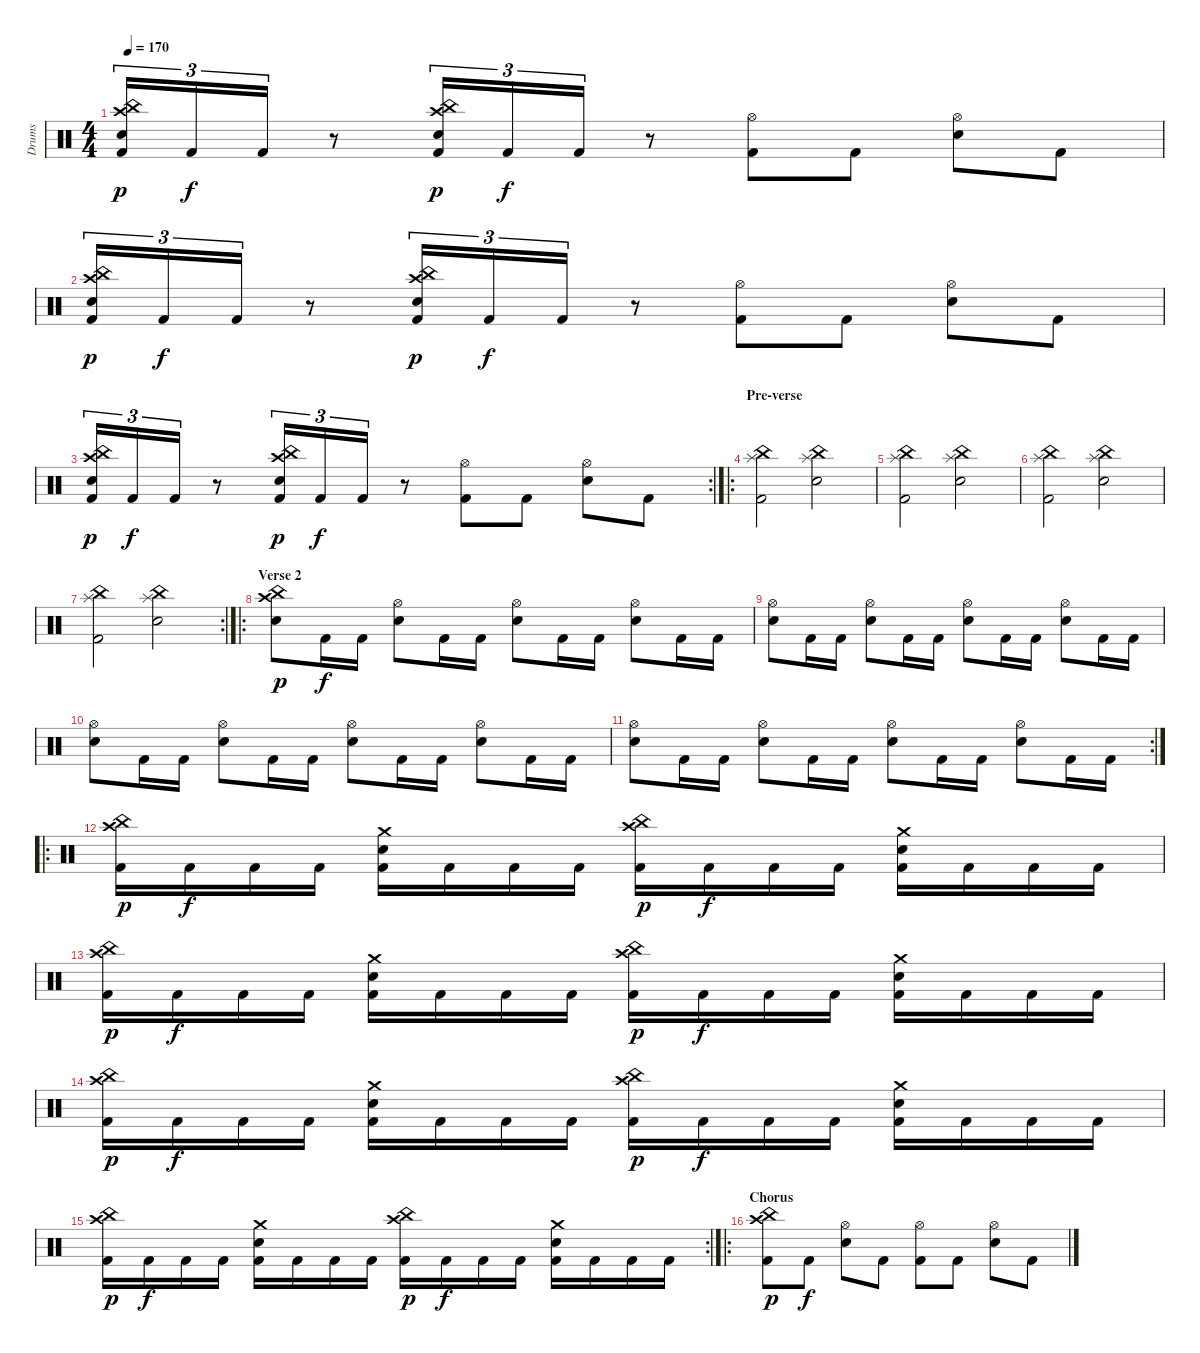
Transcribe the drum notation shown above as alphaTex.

\track ("Drums" "Drums") {instrument percussion}
\staff {score}
\articulation defaults
\ts (4 4)
\tempo 170
\clef neutral
\ks c
("Kick (hit) 2" "China (hit)" "Crash high (hit)" "Electric Snare (hit)").16{tu (3 2) dy p} "Kick (hit) 2".16{tu (3 2) dy f} "Kick (hit) 2".16{tu (3 2)} r.8 ("Kick (hit) 2" "China (hit)" "Crash high (hit)" "Electric Snare (hit)").16{tu (3 2) dy p} "Kick (hit) 2".16{tu (3 2) dy f} "Kick (hit) 2".16{tu (3 2)} r.8 ("Kick (hit) 2" "Hi-Hat (open)").8 "Kick (hit) 2".8 ("Electric Snare (hit)" "Hi-Hat (open)").8 "Kick (hit) 2".8 |
("Kick (hit) 2" "China (hit)" "Crash high (hit)" "Electric Snare (hit)").16{tu (3 2) dy p} "Kick (hit) 2".16{tu (3 2) dy f} "Kick (hit) 2".16{tu (3 2)} r.8 ("Kick (hit) 2" "China (hit)" "Crash high (hit)" "Electric Snare (hit)").16{tu (3 2) dy p} "Kick (hit) 2".16{tu (3 2) dy f} "Kick (hit) 2".16{tu (3 2)} r.8 ("Kick (hit) 2" "Hi-Hat (open)").8 "Kick (hit) 2".8 ("Electric Snare (hit)" "Hi-Hat (open)").8 "Kick (hit) 2".8 |
\rc 2
("Kick (hit) 2" "China (hit)" "Crash high (hit)" "Electric Snare (hit)").16{tu (3 2) dy p} "Kick (hit) 2".16{tu (3 2) dy f} "Kick (hit) 2".16{tu (3 2)} r.8 ("Kick (hit) 2" "China (hit)" "Crash high (hit)" "Electric Snare (hit)").16{tu (3 2) dy p} "Kick (hit) 2".16{tu (3 2) dy f} "Kick (hit) 2".16{tu (3 2)} r.8 ("Kick (hit) 2" "Hi-Hat (open)").8 "Kick (hit) 2".8 ("Electric Snare (hit)" "Hi-Hat (open)").8 "Kick (hit) 2".8 |
\ro
\section ("" "Pre-verse")
("China (hit)" "Splash (hit)" "Kick (hit) 2").2 ("China (hit)" "Splash (hit)" "Electric Snare (hit)").2 |
("China (hit)" "Splash (hit)" "Kick (hit) 2").2 ("China (hit)" "Splash (hit)" "Electric Snare (hit)").2 |
("China (hit)" "Splash (hit)" "Kick (hit) 2").2 ("China (hit)" "Splash (hit)" "Electric Snare (hit)").2 |
\rc 2
("China (hit)" "Splash (hit)" "Kick (hit) 2").2 ("China (hit)" "Splash (hit)" "Electric Snare (hit)").2 |
\ro
\section ("" "Verse 2")
("Electric Snare (hit)" "China (hit)" "Crash high (hit)").8{dy p} "Kick (hit) 2".16{dy f} "Kick (hit) 2".16 ("Electric Snare (hit)" "Hi-Hat (open)").8 "Kick (hit) 2".16 "Kick (hit) 2".16 ("Electric Snare (hit)" "Hi-Hat (open)").8 "Kick (hit) 2".16 "Kick (hit) 2".16 ("Electric Snare (hit)" "Hi-Hat (open)").8 "Kick (hit) 2".16 "Kick (hit) 2".16 |
("Electric Snare (hit)" "Hi-Hat (open)").8 "Kick (hit) 2".16 "Kick (hit) 2".16 ("Electric Snare (hit)" "Hi-Hat (open)").8 "Kick (hit) 2".16 "Kick (hit) 2".16 ("Electric Snare (hit)" "Hi-Hat (open)").8 "Kick (hit) 2".16 "Kick (hit) 2".16 ("Electric Snare (hit)" "Hi-Hat (open)").8 "Kick (hit) 2".16 "Kick (hit) 2".16 |
("Electric Snare (hit)" "Hi-Hat (open)").8 "Kick (hit) 2".16 "Kick (hit) 2".16 ("Electric Snare (hit)" "Hi-Hat (open)").8 "Kick (hit) 2".16 "Kick (hit) 2".16 ("Electric Snare (hit)" "Hi-Hat (open)").8 "Kick (hit) 2".16 "Kick (hit) 2".16 ("Electric Snare (hit)" "Hi-Hat (open)").8 "Kick (hit) 2".16 "Kick (hit) 2".16 |
\rc 2
("Electric Snare (hit)" "Hi-Hat (open)").8 "Kick (hit) 2".16 "Kick (hit) 2".16 ("Electric Snare (hit)" "Hi-Hat (open)").8 "Kick (hit) 2".16 "Kick (hit) 2".16 ("Electric Snare (hit)" "Hi-Hat (open)").8 "Kick (hit) 2".16 "Kick (hit) 2".16 ("Electric Snare (hit)" "Hi-Hat (open)").8 "Kick (hit) 2".16 "Kick (hit) 2".16 |
\ro
("Kick (hit) 2" "China (hit)" "Crash high (hit)").16{dy p} "Kick (hit) 2".16{dy f} "Kick (hit) 2".16 "Kick (hit) 2".16 ("Kick (hit) 2" "Crash medium (hit)" "Electric Snare (hit)").16 "Kick (hit) 2".16 "Kick (hit) 2".16 "Kick (hit) 2".16 ("Kick (hit) 2" "China (hit)" "Crash high (hit)").16{dy p} "Kick (hit) 2".16{dy f} "Kick (hit) 2".16 "Kick (hit) 2".16 ("Kick (hit) 2" "Crash medium (hit)" "Electric Snare (hit)").16 "Kick (hit) 2".16 "Kick (hit) 2".16 "Kick (hit) 2".16 |
("Kick (hit) 2" "China (hit)" "Crash high (hit)").16{dy p} "Kick (hit) 2".16{dy f} "Kick (hit) 2".16 "Kick (hit) 2".16 ("Kick (hit) 2" "Crash medium (hit)" "Electric Snare (hit)").16 "Kick (hit) 2".16 "Kick (hit) 2".16 "Kick (hit) 2".16 ("Kick (hit) 2" "China (hit)" "Crash high (hit)").16{dy p} "Kick (hit) 2".16{dy f} "Kick (hit) 2".16 "Kick (hit) 2".16 ("Kick (hit) 2" "Crash medium (hit)" "Electric Snare (hit)").16 "Kick (hit) 2".16 "Kick (hit) 2".16 "Kick (hit) 2".16 |
("Kick (hit) 2" "China (hit)" "Crash high (hit)").16{dy p} "Kick (hit) 2".16{dy f} "Kick (hit) 2".16 "Kick (hit) 2".16 ("Kick (hit) 2" "Crash medium (hit)" "Electric Snare (hit)").16 "Kick (hit) 2".16 "Kick (hit) 2".16 "Kick (hit) 2".16 ("Kick (hit) 2" "China (hit)" "Crash high (hit)").16{dy p} "Kick (hit) 2".16{dy f} "Kick (hit) 2".16 "Kick (hit) 2".16 ("Kick (hit) 2" "Crash medium (hit)" "Electric Snare (hit)").16 "Kick (hit) 2".16 "Kick (hit) 2".16 "Kick (hit) 2".16 |
\rc 2
("Kick (hit) 2" "China (hit)" "Crash high (hit)").16{dy p} "Kick (hit) 2".16{dy f} "Kick (hit) 2".16 "Kick (hit) 2".16 ("Kick (hit) 2" "Crash medium (hit)" "Electric Snare (hit)").16 "Kick (hit) 2".16 "Kick (hit) 2".16 "Kick (hit) 2".16 ("Kick (hit) 2" "China (hit)" "Crash high (hit)").16{dy p} "Kick (hit) 2".16{dy f} "Kick (hit) 2".16 "Kick (hit) 2".16 ("Kick (hit) 2" "Crash medium (hit)" "Electric Snare (hit)").16 "Kick (hit) 2".16 "Kick (hit) 2".16 "Kick (hit) 2".16 |
\ro
\section ("" "Chorus")
("Kick (hit) 2" "China (hit)" "Crash high (hit)").8{dy p} "Kick (hit) 2".8{dy f} ("Electric Snare (hit)" "Hi-Hat (open)").8 "Kick (hit) 2".8 ("Kick (hit) 2" "Hi-Hat (open)").8 "Kick (hit) 2".8 ("Electric Snare (hit)" "Hi-Hat (open)").8 "Kick (hit) 2".8
